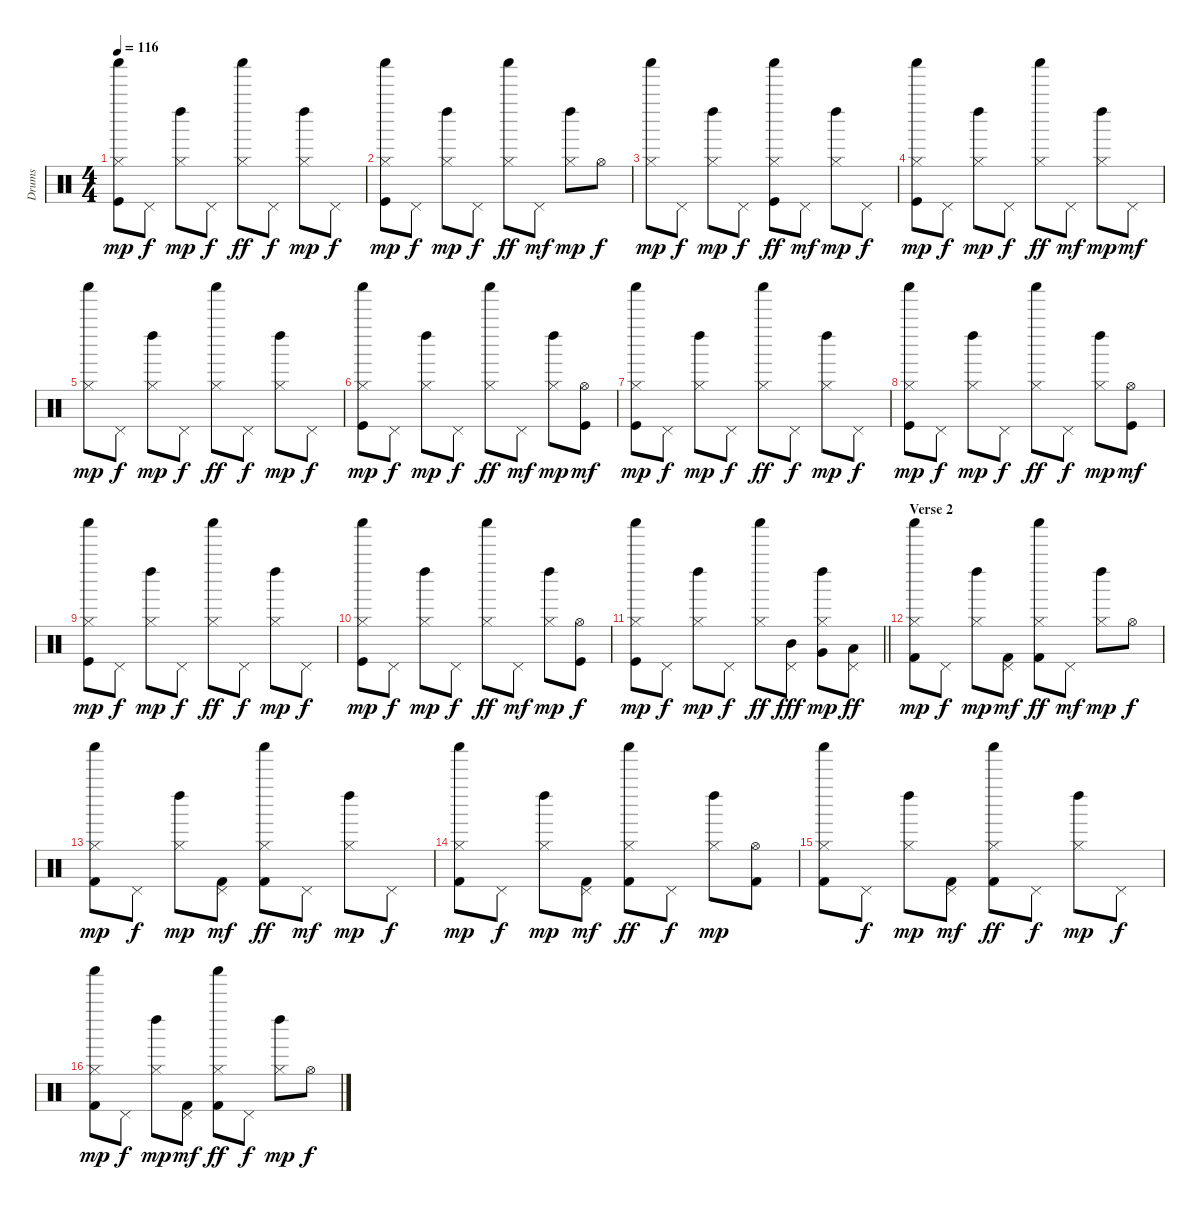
\track ("Drums" "Drums") {instrument percussion}
\staff {score}
\articulation defaults
\ts (4 4)
\tempo 116
\clef neutral
\ks c
("Kick (hit)" "Hi-Hat (closed)" "Shaker (hit)").8{dy mp} "Pedal Hi-Hat (hit)".8{dy f} ("Hi-Hat (closed)" "Left Maraca (hit)").8{dy mp} "Pedal Hi-Hat (hit)".8{dy f} ("Shaker (hit)" "Hi-Hat (closed)").8{dy ff} "Pedal Hi-Hat (hit)".8{dy f} ("Hi-Hat (closed)" "Left Maraca (hit)").8{dy mp} "Pedal Hi-Hat (hit)".8{dy f} |
("Kick (hit)" "Hi-Hat (closed)" "Shaker (hit)").8{dy mp} "Pedal Hi-Hat (hit)".8{dy f} ("Hi-Hat (closed)" "Left Maraca (hit)").8{dy mp} "Pedal Hi-Hat (hit)".8{dy f} ("Shaker (hit)" "Hi-Hat (closed)").8{dy ff} "Pedal Hi-Hat (hit)".8{dy mf} ("Hi-Hat (closed)" "Left Maraca (hit)").8{dy mp} "Hi-Hat (open)".8{dy f} |
("Hi-Hat (closed)" "Shaker (hit)").8{dy mp} "Pedal Hi-Hat (hit)".8{dy f} ("Hi-Hat (closed)" "Left Maraca (hit)").8{dy mp} "Pedal Hi-Hat (hit)".8{dy f} ("Kick (hit)" "Shaker (hit)" "Hi-Hat (closed)").8{dy ff} "Pedal Hi-Hat (hit)".8{dy mf} ("Hi-Hat (closed)" "Left Maraca (hit)").8{dy mp} "Pedal Hi-Hat (hit)".8{dy f} |
("Kick (hit)" "Hi-Hat (closed)" "Shaker (hit)").8{dy mp} "Pedal Hi-Hat (hit)".8{dy f} ("Hi-Hat (closed)" "Left Maraca (hit)").8{dy mp} "Pedal Hi-Hat (hit)".8{dy f} ("Shaker (hit)" "Hi-Hat (closed)").8{dy ff} "Pedal Hi-Hat (hit)".8{dy mf} ("Hi-Hat (closed)" "Left Maraca (hit)").8{dy mp} "Pedal Hi-Hat (hit)".8{dy mf} |
("Hi-Hat (closed)" "Shaker (hit)").8{dy mp} "Pedal Hi-Hat (hit)".8{dy f} ("Hi-Hat (closed)" "Left Maraca (hit)").8{dy mp} "Pedal Hi-Hat (hit)".8{dy f} ("Shaker (hit)" "Hi-Hat (closed)").8{dy ff} "Pedal Hi-Hat (hit)".8{dy f} ("Hi-Hat (closed)" "Left Maraca (hit)").8{dy mp} "Pedal Hi-Hat (hit)".8{dy f} |
("Kick (hit)" "Hi-Hat (closed)" "Shaker (hit)").8{dy mp} "Pedal Hi-Hat (hit)".8{dy f} ("Hi-Hat (closed)" "Left Maraca (hit)").8{dy mp} "Pedal Hi-Hat (hit)".8{dy f} ("Shaker (hit)" "Hi-Hat (closed)").8{dy ff} "Pedal Hi-Hat (hit)".8{dy mf} ("Hi-Hat (closed)" "Left Maraca (hit)").8{dy mp} ("Kick (hit)" "Hi-Hat (open)").8{dy mf} |
("Kick (hit)" "Hi-Hat (closed)" "Shaker (hit)").8{dy mp} "Pedal Hi-Hat (hit)".8{dy f} ("Hi-Hat (closed)" "Left Maraca (hit)").8{dy mp} "Pedal Hi-Hat (hit)".8{dy f} ("Shaker (hit)" "Hi-Hat (closed)").8{dy ff} "Pedal Hi-Hat (hit)".8{dy f} ("Hi-Hat (closed)" "Left Maraca (hit)").8{dy mp} "Pedal Hi-Hat (hit)".8{dy f} |
("Kick (hit)" "Hi-Hat (closed)" "Shaker (hit)").8{dy mp} "Pedal Hi-Hat (hit)".8{dy f} ("Hi-Hat (closed)" "Left Maraca (hit)").8{dy mp} "Pedal Hi-Hat (hit)".8{dy f} ("Shaker (hit)" "Hi-Hat (closed)").8{dy ff} "Pedal Hi-Hat (hit)".8{dy f} ("Hi-Hat (closed)" "Left Maraca (hit)").8{dy mp} ("Kick (hit)" "Hi-Hat (open)").8{dy mf} |
("Kick (hit)" "Hi-Hat (closed)" "Shaker (hit)").8{dy mp} "Pedal Hi-Hat (hit)".8{dy f} ("Hi-Hat (closed)" "Left Maraca (hit)").8{dy mp} "Pedal Hi-Hat (hit)".8{dy f} ("Shaker (hit)" "Hi-Hat (closed)").8{dy ff} "Pedal Hi-Hat (hit)".8{dy f} ("Hi-Hat (closed)" "Left Maraca (hit)").8{dy mp} "Pedal Hi-Hat (hit)".8{dy f} |
("Kick (hit)" "Hi-Hat (closed)" "Shaker (hit)").8{dy mp} "Pedal Hi-Hat (hit)".8{dy f} ("Hi-Hat (closed)" "Left Maraca (hit)").8{dy mp} "Pedal Hi-Hat (hit)".8{dy f} ("Shaker (hit)" "Hi-Hat (closed)").8{dy ff} "Pedal Hi-Hat (hit)".8{dy mf} ("Hi-Hat (closed)" "Left Maraca (hit)").8{dy mp} ("Kick (hit)" "Hi-Hat (open)").8{dy f} |
\barLineRight lightlight
("Kick (hit)" "Hi-Hat (closed)" "Shaker (hit)").8{dy mp} "Pedal Hi-Hat (hit)".8{dy f} ("Hi-Hat (closed)" "Left Maraca (hit)").8{dy mp} "Pedal Hi-Hat (hit)".8{dy f} ("Shaker (hit)" "Hi-Hat (closed)").8{dy ff} ("Pedal Hi-Hat (hit)" "Mid Tom (hit)").8{dy fff} ("Hi-Hat (closed)" "Very Low Tom (hit)" "Left Maraca (hit)").8{dy mp} ("Low Floor Tom (hit)" "Pedal Hi-Hat (hit)").8{dy ff} |
\section ("" "Verse 2")
("Kick (hit) 2" "Hi-Hat (closed)" "Shaker (hit)").8{dy mp} "Pedal Hi-Hat (hit)".8{dy f} ("Hi-Hat (closed)" "Left Maraca (hit)").8{dy mp} ("Pedal Hi-Hat (hit)" "Kick (hit) 2").8{dy mf} ("Kick (hit) 2" "Shaker (hit)" "Hi-Hat (closed)").8{dy ff} "Pedal Hi-Hat (hit)".8{dy mf} ("Hi-Hat (closed)" "Left Maraca (hit)").8{dy mp} "Hi-Hat (open)".8{dy f} |
("Kick (hit) 2" "Hi-Hat (closed)" "Shaker (hit)").8{dy mp} "Pedal Hi-Hat (hit)".8{dy f} ("Hi-Hat (closed)" "Left Maraca (hit)").8{dy mp} ("Pedal Hi-Hat (hit)" "Kick (hit) 2").8{dy mf} ("Kick (hit) 2" "Shaker (hit)" "Hi-Hat (closed)").8{dy ff} "Pedal Hi-Hat (hit)".8{dy mf} ("Hi-Hat (closed)" "Left Maraca (hit)").8{dy mp} "Pedal Hi-Hat (hit)".8{dy f} |
("Kick (hit) 2" "Hi-Hat (closed)" "Shaker (hit)").8{dy mp} "Pedal Hi-Hat (hit)".8{dy f} ("Hi-Hat (closed)" "Left Maraca (hit)").8{dy mp} ("Pedal Hi-Hat (hit)" "Kick (hit) 2").8{dy mf} ("Kick (hit) 2" "Shaker (hit)" "Hi-Hat (closed)").8{dy ff} "Pedal Hi-Hat (hit)".8{dy f} ("Hi-Hat (closed)" "Left Maraca (hit)").8{dy mp} ("Kick (hit) 2" "Hi-Hat (open)").8 |
("Kick (hit) 2" "Hi-Hat (closed)" "Shaker (hit)").8 "Pedal Hi-Hat (hit)".8{dy f} ("Hi-Hat (closed)" "Left Maraca (hit)").8{dy mp} ("Pedal Hi-Hat (hit)" "Kick (hit) 2").8{dy mf} ("Kick (hit) 2" "Shaker (hit)" "Hi-Hat (closed)").8{dy ff} "Pedal Hi-Hat (hit)".8{dy f} ("Hi-Hat (closed)" "Left Maraca (hit)").8{dy mp} "Pedal Hi-Hat (hit)".8{dy f} |
("Kick (hit) 2" "Hi-Hat (closed)" "Shaker (hit)").8{dy mp} "Pedal Hi-Hat (hit)".8{dy f} ("Hi-Hat (closed)" "Left Maraca (hit)").8{dy mp} ("Pedal Hi-Hat (hit)" "Kick (hit) 2").8{dy mf} ("Kick (hit) 2" "Shaker (hit)" "Hi-Hat (closed)").8{dy ff} "Pedal Hi-Hat (hit)".8{dy f} ("Hi-Hat (closed)" "Left Maraca (hit)").8{dy mp} "Hi-Hat (open)".8{dy f}
